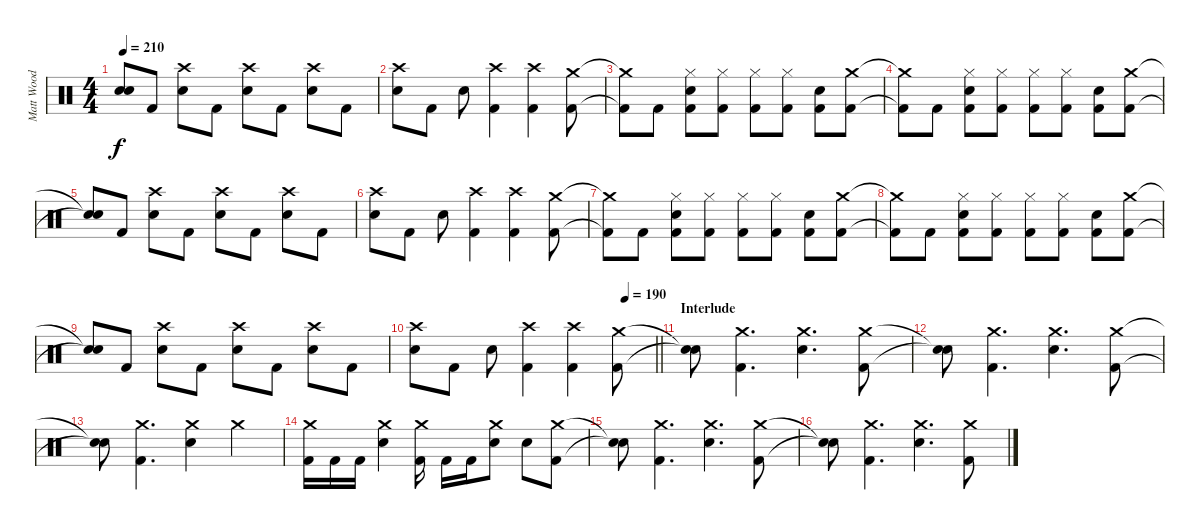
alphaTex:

\track ("Matt Wood" "Matt Wood") {instrument percussion}
\staff {score}
\articulation defaults
\ts (4 4)
\tempo 210
\clef neutral
\ks c
("Snare (hit)"{t} "Snare (hit)"{t}).8{dy f} "Kick (hit) 2".8 ("Crash high (hit)" "Snare (hit) 2").8 "Kick (hit) 2".8 ("Crash high (hit)" "Snare (hit) 2").8 "Kick (hit) 2".8 ("Crash high (hit)" "Snare (hit) 2").8 "Kick (hit) 2".8 |
("Crash high (hit)" "Snare (hit) 2").8 "Kick (hit) 2".8 "Snare (hit) 2".8 ("Crash high (hit)" "Kick (hit) 2").4 ("Crash high (hit)" "Kick (hit) 2").4 ("Crash medium (hit)" "Kick (hit) 2").8 |
("Crash medium (hit)"{t} "Kick (hit) 2"{t}).8 "Kick (hit) 2".8 ("Hi-Hat (closed)" "Snare (hit) 2" "Kick (hit) 2").8 ("Hi-Hat (closed)" "Kick (hit) 2").8 ("Hi-Hat (closed)" "Kick (hit) 2").8 ("Hi-Hat (closed)" "Kick (hit) 2").8 ("Snare (hit) 2" "Kick (hit) 2").8 ("Crash medium (hit)" "Kick (hit) 2").8 |
("Crash medium (hit)"{t} "Kick (hit) 2"{t}).8 "Kick (hit) 2".8 ("Hi-Hat (closed)" "Snare (hit) 2" "Kick (hit) 2").8 ("Hi-Hat (closed)" "Kick (hit) 2").8 ("Hi-Hat (closed)" "Kick (hit) 2").8 ("Hi-Hat (closed)" "Kick (hit) 2").8 ("Snare (hit) 2" "Kick (hit) 2").8 ("Crash medium (hit)" "Kick (hit) 2").8 |
("Snare (hit)"{t} "Snare (hit)"{t}).8 "Kick (hit) 2".8 ("Crash high (hit)" "Snare (hit) 2").8 "Kick (hit) 2".8 ("Crash high (hit)" "Snare (hit) 2").8 "Kick (hit) 2".8 ("Crash high (hit)" "Snare (hit) 2").8 "Kick (hit) 2".8 |
("Crash high (hit)" "Snare (hit) 2").8 "Kick (hit) 2".8 "Snare (hit) 2".8 ("Crash high (hit)" "Kick (hit) 2").4 ("Crash high (hit)" "Kick (hit) 2").4 ("Crash medium (hit)" "Kick (hit) 2").8 |
("Crash medium (hit)"{t} "Kick (hit) 2"{t}).8 "Kick (hit) 2".8 ("Hi-Hat (closed)" "Snare (hit) 2" "Kick (hit) 2").8 ("Hi-Hat (closed)" "Kick (hit) 2").8 ("Hi-Hat (closed)" "Kick (hit) 2").8 ("Hi-Hat (closed)" "Kick (hit) 2").8 ("Snare (hit) 2" "Kick (hit) 2").8 ("Crash medium (hit)" "Kick (hit) 2").8 |
("Crash medium (hit)"{t} "Kick (hit) 2"{t}).8 "Kick (hit) 2".8 ("Hi-Hat (closed)" "Snare (hit) 2" "Kick (hit) 2").8 ("Hi-Hat (closed)" "Kick (hit) 2").8 ("Hi-Hat (closed)" "Kick (hit) 2").8 ("Hi-Hat (closed)" "Kick (hit) 2").8 ("Snare (hit) 2" "Kick (hit) 2").8 ("Crash medium (hit)" "Kick (hit) 2").8 |
("Snare (hit)"{t} "Snare (hit)"{t}).8 "Kick (hit) 2".8 ("Crash high (hit)" "Snare (hit) 2").8 "Kick (hit) 2".8 ("Crash high (hit)" "Snare (hit) 2").8 "Kick (hit) 2".8 ("Crash high (hit)" "Snare (hit) 2").8 "Kick (hit) 2".8 |
\tempo (190 0.875)
\barLineRight lightlight
("Crash high (hit)" "Snare (hit) 2").8 "Kick (hit) 2".8 "Snare (hit) 2".8 ("Crash high (hit)" "Kick (hit) 2").4 ("Crash high (hit)" "Kick (hit) 2").4 ("Crash medium (hit)" "Kick (hit) 2").8 |
\section ("" "Interlude")
("Snare (hit)"{t} "Snare (hit)"{t}).8 ("Crash medium (hit)" "Kick (hit) 2").4{d} ("Crash medium (hit)" "Snare (hit) 2").4{d} ("Crash medium (hit)" "Kick (hit) 2").8 |
("Snare (hit)"{t} "Snare (hit)"{t}).8 ("Crash medium (hit)" "Kick (hit) 2").4{d} ("Crash medium (hit)" "Snare (hit) 2").4{d} ("Crash medium (hit)" "Kick (hit) 2").8 |
("Snare (hit)"{t} "Snare (hit)"{t}).8 ("Crash medium (hit)" "Kick (hit) 2").4{d} ("Crash medium (hit)" "Snare (hit) 2").4 "Crash medium (hit)".4 |
("Crash medium (hit)" "Kick (hit) 2").16 "Kick (hit) 2".16 "Kick (hit) 2".16 ("Crash medium (hit)" "Snare (hit) 2").4 ("Crash medium (hit)" "Kick (hit) 2").16 "Kick (hit) 2".16 "Kick (hit) 2".16 ("Crash medium (hit)" "Snare (hit) 2").8 "Snare (hit) 2".8 ("Crash medium (hit)" "Kick (hit) 2").8 |
("Snare (hit)"{t} "Snare (hit)"{t}).8 ("Crash medium (hit)" "Kick (hit) 2").4{d} ("Crash medium (hit)" "Snare (hit) 2").4{d} ("Crash medium (hit)" "Kick (hit) 2").8 |
("Snare (hit)"{t} "Snare (hit)"{t}).8 ("Crash medium (hit)" "Kick (hit) 2").4{d} ("Crash medium (hit)" "Snare (hit) 2").4{d} ("Crash medium (hit)" "Kick (hit) 2").8
